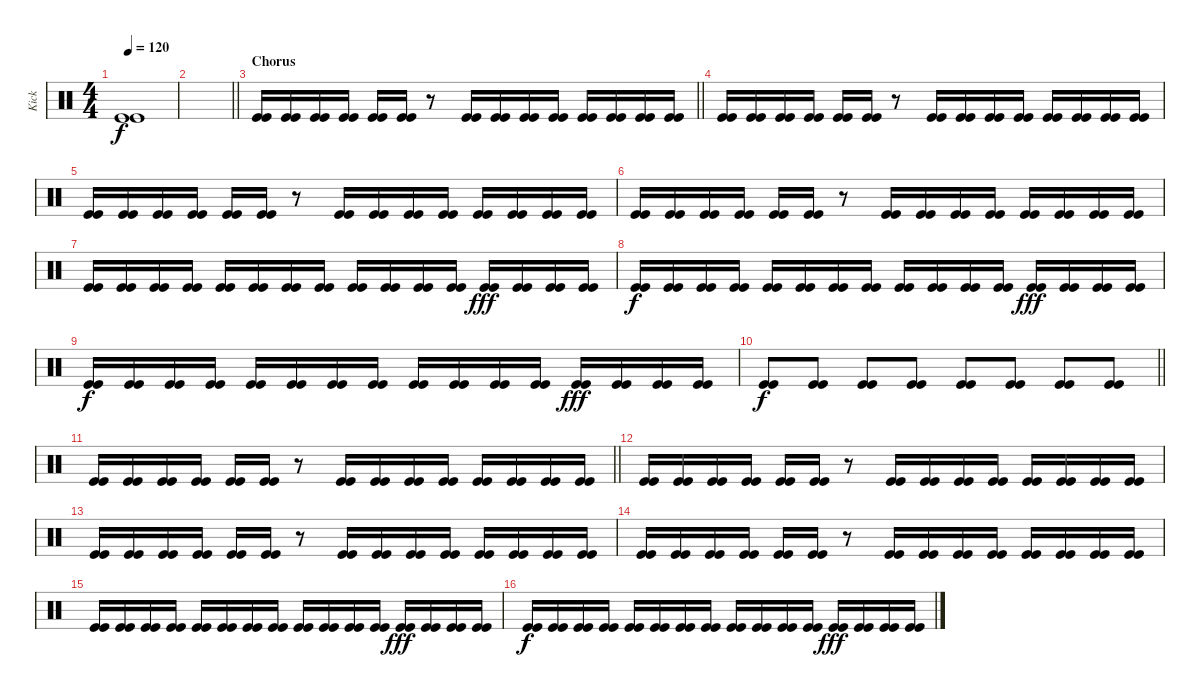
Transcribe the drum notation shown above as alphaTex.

\track ("Kick" "Kick") {instrument percussion}
\staff {score}
\articulation defaults
\ts (4 4)
\tempo 120
\clef neutral
\ks c
("Kick (hit)" "Kick (hit)").1{dy f} |
\barLineRight lightlight
|
\section ("" "Chorus")
\barLineRight lightlight
("Kick (hit)" "Kick (hit)").16 ("Kick (hit)" "Kick (hit)").16 ("Kick (hit)" "Kick (hit)").16 ("Kick (hit)" "Kick (hit)").16 ("Kick (hit)" "Kick (hit)").16 ("Kick (hit)" "Kick (hit)").16 r.8 ("Kick (hit)" "Kick (hit)").16 ("Kick (hit)" "Kick (hit)").16 ("Kick (hit)" "Kick (hit)").16 ("Kick (hit)" "Kick (hit)").16 ("Kick (hit)" "Kick (hit)").16 ("Kick (hit)" "Kick (hit)").16 ("Kick (hit)" "Kick (hit)").16 ("Kick (hit)" "Kick (hit)").16 |
("Kick (hit)" "Kick (hit)").16 ("Kick (hit)" "Kick (hit)").16 ("Kick (hit)" "Kick (hit)").16 ("Kick (hit)" "Kick (hit)").16 ("Kick (hit)" "Kick (hit)").16 ("Kick (hit)" "Kick (hit)").16 r.8 ("Kick (hit)" "Kick (hit)").16 ("Kick (hit)" "Kick (hit)").16 ("Kick (hit)" "Kick (hit)").16 ("Kick (hit)" "Kick (hit)").16 ("Kick (hit)" "Kick (hit)").16 ("Kick (hit)" "Kick (hit)").16 ("Kick (hit)" "Kick (hit)").16 ("Kick (hit)" "Kick (hit)").16 |
("Kick (hit)" "Kick (hit)").16 ("Kick (hit)" "Kick (hit)").16 ("Kick (hit)" "Kick (hit)").16 ("Kick (hit)" "Kick (hit)").16 ("Kick (hit)" "Kick (hit)").16 ("Kick (hit)" "Kick (hit)").16 r.8 ("Kick (hit)" "Kick (hit)").16 ("Kick (hit)" "Kick (hit)").16 ("Kick (hit)" "Kick (hit)").16 ("Kick (hit)" "Kick (hit)").16 ("Kick (hit)" "Kick (hit)").16 ("Kick (hit)" "Kick (hit)").16 ("Kick (hit)" "Kick (hit)").16 ("Kick (hit)" "Kick (hit)").16 |
("Kick (hit)" "Kick (hit)").16 ("Kick (hit)" "Kick (hit)").16 ("Kick (hit)" "Kick (hit)").16 ("Kick (hit)" "Kick (hit)").16 ("Kick (hit)" "Kick (hit)").16 ("Kick (hit)" "Kick (hit)").16 r.8 ("Kick (hit)" "Kick (hit)").16 ("Kick (hit)" "Kick (hit)").16 ("Kick (hit)" "Kick (hit)").16 ("Kick (hit)" "Kick (hit)").16 ("Kick (hit)" "Kick (hit)").16 ("Kick (hit)" "Kick (hit)").16 ("Kick (hit)" "Kick (hit)").16 ("Kick (hit)" "Kick (hit)").16 |
("Kick (hit)" "Kick (hit)").16 ("Kick (hit)" "Kick (hit)").16 ("Kick (hit)" "Kick (hit)").16 ("Kick (hit)" "Kick (hit)").16 ("Kick (hit)" "Kick (hit)").16 ("Kick (hit)" "Kick (hit)").16 ("Kick (hit)" "Kick (hit)").16 ("Kick (hit)" "Kick (hit)").16 ("Kick (hit)" "Kick (hit)").16 ("Kick (hit)" "Kick (hit)").16 ("Kick (hit)" "Kick (hit)").16 ("Kick (hit)" "Kick (hit)").16 ("Kick (hit)" "Kick (hit)").16{dy fff} ("Kick (hit)" "Kick (hit)").16 ("Kick (hit)" "Kick (hit)").16 ("Kick (hit)" "Kick (hit)").16 |
("Kick (hit)" "Kick (hit)").16{dy f} ("Kick (hit)" "Kick (hit)").16 ("Kick (hit)" "Kick (hit)").16 ("Kick (hit)" "Kick (hit)").16 ("Kick (hit)" "Kick (hit)").16 ("Kick (hit)" "Kick (hit)").16 ("Kick (hit)" "Kick (hit)").16 ("Kick (hit)" "Kick (hit)").16 ("Kick (hit)" "Kick (hit)").16 ("Kick (hit)" "Kick (hit)").16 ("Kick (hit)" "Kick (hit)").16 ("Kick (hit)" "Kick (hit)").16 ("Kick (hit)" "Kick (hit)").16{dy fff} ("Kick (hit)" "Kick (hit)").16 ("Kick (hit)" "Kick (hit)").16 ("Kick (hit)" "Kick (hit)").16 |
("Kick (hit)" "Kick (hit)").16{dy f} ("Kick (hit)" "Kick (hit)").16 ("Kick (hit)" "Kick (hit)").16 ("Kick (hit)" "Kick (hit)").16 ("Kick (hit)" "Kick (hit)").16 ("Kick (hit)" "Kick (hit)").16 ("Kick (hit)" "Kick (hit)").16 ("Kick (hit)" "Kick (hit)").16 ("Kick (hit)" "Kick (hit)").16 ("Kick (hit)" "Kick (hit)").16 ("Kick (hit)" "Kick (hit)").16 ("Kick (hit)" "Kick (hit)").16 ("Kick (hit)" "Kick (hit)").16{dy fff} ("Kick (hit)" "Kick (hit)").16 ("Kick (hit)" "Kick (hit)").16 ("Kick (hit)" "Kick (hit)").16 |
\barLineRight lightlight
("Kick (hit)" "Kick (hit)").8{dy f} ("Kick (hit)" "Kick (hit)").8 ("Kick (hit)" "Kick (hit)").8 ("Kick (hit)" "Kick (hit)").8 ("Kick (hit)" "Kick (hit)").8 ("Kick (hit)" "Kick (hit)").8 ("Kick (hit)" "Kick (hit)").8 ("Kick (hit)" "Kick (hit)").8 |
\barLineRight lightlight
("Kick (hit)" "Kick (hit)").16 ("Kick (hit)" "Kick (hit)").16 ("Kick (hit)" "Kick (hit)").16 ("Kick (hit)" "Kick (hit)").16 ("Kick (hit)" "Kick (hit)").16 ("Kick (hit)" "Kick (hit)").16 r.8 ("Kick (hit)" "Kick (hit)").16 ("Kick (hit)" "Kick (hit)").16 ("Kick (hit)" "Kick (hit)").16 ("Kick (hit)" "Kick (hit)").16 ("Kick (hit)" "Kick (hit)").16 ("Kick (hit)" "Kick (hit)").16 ("Kick (hit)" "Kick (hit)").16 ("Kick (hit)" "Kick (hit)").16 |
("Kick (hit)" "Kick (hit)").16 ("Kick (hit)" "Kick (hit)").16 ("Kick (hit)" "Kick (hit)").16 ("Kick (hit)" "Kick (hit)").16 ("Kick (hit)" "Kick (hit)").16 ("Kick (hit)" "Kick (hit)").16 r.8 ("Kick (hit)" "Kick (hit)").16 ("Kick (hit)" "Kick (hit)").16 ("Kick (hit)" "Kick (hit)").16 ("Kick (hit)" "Kick (hit)").16 ("Kick (hit)" "Kick (hit)").16 ("Kick (hit)" "Kick (hit)").16 ("Kick (hit)" "Kick (hit)").16 ("Kick (hit)" "Kick (hit)").16 |
("Kick (hit)" "Kick (hit)").16 ("Kick (hit)" "Kick (hit)").16 ("Kick (hit)" "Kick (hit)").16 ("Kick (hit)" "Kick (hit)").16 ("Kick (hit)" "Kick (hit)").16 ("Kick (hit)" "Kick (hit)").16 r.8 ("Kick (hit)" "Kick (hit)").16 ("Kick (hit)" "Kick (hit)").16 ("Kick (hit)" "Kick (hit)").16 ("Kick (hit)" "Kick (hit)").16 ("Kick (hit)" "Kick (hit)").16 ("Kick (hit)" "Kick (hit)").16 ("Kick (hit)" "Kick (hit)").16 ("Kick (hit)" "Kick (hit)").16 |
("Kick (hit)" "Kick (hit)").16 ("Kick (hit)" "Kick (hit)").16 ("Kick (hit)" "Kick (hit)").16 ("Kick (hit)" "Kick (hit)").16 ("Kick (hit)" "Kick (hit)").16 ("Kick (hit)" "Kick (hit)").16 r.8 ("Kick (hit)" "Kick (hit)").16 ("Kick (hit)" "Kick (hit)").16 ("Kick (hit)" "Kick (hit)").16 ("Kick (hit)" "Kick (hit)").16 ("Kick (hit)" "Kick (hit)").16 ("Kick (hit)" "Kick (hit)").16 ("Kick (hit)" "Kick (hit)").16 ("Kick (hit)" "Kick (hit)").16 |
("Kick (hit)" "Kick (hit)").16 ("Kick (hit)" "Kick (hit)").16 ("Kick (hit)" "Kick (hit)").16 ("Kick (hit)" "Kick (hit)").16 ("Kick (hit)" "Kick (hit)").16 ("Kick (hit)" "Kick (hit)").16 ("Kick (hit)" "Kick (hit)").16 ("Kick (hit)" "Kick (hit)").16 ("Kick (hit)" "Kick (hit)").16 ("Kick (hit)" "Kick (hit)").16 ("Kick (hit)" "Kick (hit)").16 ("Kick (hit)" "Kick (hit)").16 ("Kick (hit)" "Kick (hit)").16{dy fff} ("Kick (hit)" "Kick (hit)").16 ("Kick (hit)" "Kick (hit)").16 ("Kick (hit)" "Kick (hit)").16 |
("Kick (hit)" "Kick (hit)").16{dy f} ("Kick (hit)" "Kick (hit)").16 ("Kick (hit)" "Kick (hit)").16 ("Kick (hit)" "Kick (hit)").16 ("Kick (hit)" "Kick (hit)").16 ("Kick (hit)" "Kick (hit)").16 ("Kick (hit)" "Kick (hit)").16 ("Kick (hit)" "Kick (hit)").16 ("Kick (hit)" "Kick (hit)").16 ("Kick (hit)" "Kick (hit)").16 ("Kick (hit)" "Kick (hit)").16 ("Kick (hit)" "Kick (hit)").16 ("Kick (hit)" "Kick (hit)").16{dy fff} ("Kick (hit)" "Kick (hit)").16 ("Kick (hit)" "Kick (hit)").16 ("Kick (hit)" "Kick (hit)").16
